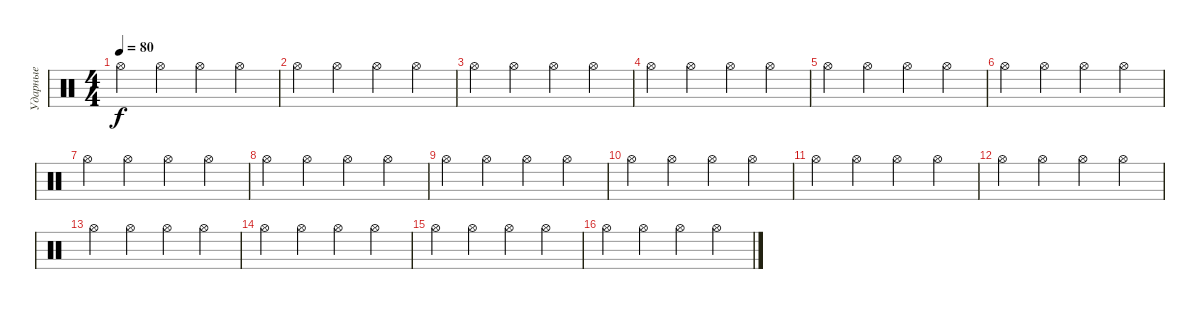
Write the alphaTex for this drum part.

\track ("Ударные" "Ударные") {instrument percussion}
\staff {score}
\articulation defaults
\ts (4 4)
\tempo 80
\clef neutral
\ks c "Hi-Hat (open)".4{dy f} "Hi-Hat (open)".4 "Hi-Hat (open)".4 "Hi-Hat (open)".4
|
"Hi-Hat (open)".4 "Hi-Hat (open)".4 "Hi-Hat (open)".4 "Hi-Hat (open)".4 |
"Hi-Hat (open)".4 "Hi-Hat (open)".4 "Hi-Hat (open)".4 "Hi-Hat (open)".4 |
"Hi-Hat (open)".4 "Hi-Hat (open)".4 "Hi-Hat (open)".4 "Hi-Hat (open)".4 |
"Hi-Hat (open)".4 "Hi-Hat (open)".4 "Hi-Hat (open)".4 "Hi-Hat (open)".4 |
"Hi-Hat (open)".4 "Hi-Hat (open)".4 "Hi-Hat (open)".4 "Hi-Hat (open)".4 |
"Hi-Hat (open)".4 "Hi-Hat (open)".4 "Hi-Hat (open)".4 "Hi-Hat (open)".4 |
"Hi-Hat (open)".4 "Hi-Hat (open)".4 "Hi-Hat (open)".4 "Hi-Hat (open)".4 |
"Hi-Hat (open)".4 "Hi-Hat (open)".4 "Hi-Hat (open)".4 "Hi-Hat (open)".4 |
"Hi-Hat (open)".4 "Hi-Hat (open)".4 "Hi-Hat (open)".4 "Hi-Hat (open)".4 |
"Hi-Hat (open)".4 "Hi-Hat (open)".4 "Hi-Hat (open)".4 "Hi-Hat (open)".4 |
"Hi-Hat (open)".4 "Hi-Hat (open)".4 "Hi-Hat (open)".4 "Hi-Hat (open)".4 |
"Hi-Hat (open)".4 "Hi-Hat (open)".4 "Hi-Hat (open)".4 "Hi-Hat (open)".4 |
"Hi-Hat (open)".4 "Hi-Hat (open)".4 "Hi-Hat (open)".4 "Hi-Hat (open)".4 |
"Hi-Hat (open)".4 "Hi-Hat (open)".4 "Hi-Hat (open)".4 "Hi-Hat (open)".4 |
"Hi-Hat (open)".4 "Hi-Hat (open)".4 "Hi-Hat (open)".4 "Hi-Hat (open)".4
